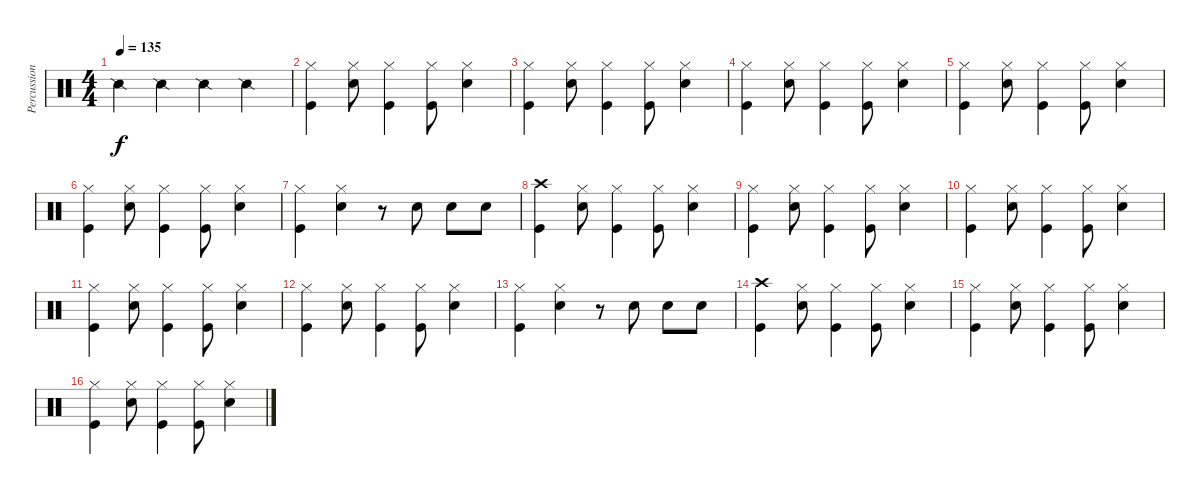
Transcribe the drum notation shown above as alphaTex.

\track ("Percussion" "Percussion") {instrument percussion}
\staff {score}
\articulation defaults
\ts (4 4)
\tempo 135
\clef neutral
\ks c "Snare (side stick) 2".4{dy f} "Snare (side stick) 2".4 "Snare (side stick) 2".4 "Snare (side stick) 2".4
|
("Hi-Hat (closed)" "Kick (hit)").4 ("Hi-Hat (closed)" "Electric Snare (hit)").8 ("Hi-Hat (closed)" "Kick (hit)").4 ("Hi-Hat (closed)" "Kick (hit)").8 ("Hi-Hat (closed)" "Electric Snare (hit)").4 |
("Hi-Hat (closed)" "Kick (hit)").4 ("Hi-Hat (closed)" "Electric Snare (hit)").8 ("Hi-Hat (closed)" "Kick (hit)").4 ("Hi-Hat (closed)" "Kick (hit)").8 ("Hi-Hat (closed)" "Electric Snare (hit)").4 |
("Hi-Hat (closed)" "Kick (hit)").4 ("Hi-Hat (closed)" "Electric Snare (hit)").8 ("Hi-Hat (closed)" "Kick (hit)").4 ("Hi-Hat (closed)" "Kick (hit)").8 ("Hi-Hat (closed)" "Electric Snare (hit)").4 |
("Hi-Hat (closed)" "Kick (hit)").4 ("Hi-Hat (closed)" "Electric Snare (hit)").8 ("Hi-Hat (closed)" "Kick (hit)").4 ("Hi-Hat (closed)" "Kick (hit)").8 ("Hi-Hat (closed)" "Electric Snare (hit)").4 |
("Hi-Hat (closed)" "Kick (hit)").4 ("Hi-Hat (closed)" "Electric Snare (hit)").8 ("Hi-Hat (closed)" "Kick (hit)").4 ("Hi-Hat (closed)" "Kick (hit)").8 ("Hi-Hat (closed)" "Electric Snare (hit)").4 |
("Hi-Hat (closed)" "Kick (hit)").4 ("Hi-Hat (closed)" "Electric Snare (hit)").4 r.8 "Electric Snare (hit)".8 "Electric Snare (hit)".8 "Electric Snare (hit)".8 |
("Crash high (hit)" "Kick (hit)").4 ("Hi-Hat (closed)" "Electric Snare (hit)").8 ("Hi-Hat (closed)" "Kick (hit)").4 ("Hi-Hat (closed)" "Kick (hit)").8 ("Hi-Hat (closed)" "Electric Snare (hit)").4 |
("Hi-Hat (closed)" "Kick (hit)").4 ("Hi-Hat (closed)" "Electric Snare (hit)").8 ("Hi-Hat (closed)" "Kick (hit)").4 ("Hi-Hat (closed)" "Kick (hit)").8 ("Hi-Hat (closed)" "Electric Snare (hit)").4 |
("Hi-Hat (closed)" "Kick (hit)").4 ("Hi-Hat (closed)" "Electric Snare (hit)").8 ("Hi-Hat (closed)" "Kick (hit)").4 ("Hi-Hat (closed)" "Kick (hit)").8 ("Hi-Hat (closed)" "Electric Snare (hit)").4 |
("Hi-Hat (closed)" "Kick (hit)").4 ("Hi-Hat (closed)" "Electric Snare (hit)").8 ("Hi-Hat (closed)" "Kick (hit)").4 ("Hi-Hat (closed)" "Kick (hit)").8 ("Hi-Hat (closed)" "Electric Snare (hit)").4 |
("Hi-Hat (closed)" "Kick (hit)").4 ("Hi-Hat (closed)" "Electric Snare (hit)").8 ("Hi-Hat (closed)" "Kick (hit)").4 ("Hi-Hat (closed)" "Kick (hit)").8 ("Hi-Hat (closed)" "Electric Snare (hit)").4 |
("Hi-Hat (closed)" "Kick (hit)").4 ("Hi-Hat (closed)" "Electric Snare (hit)").4 r.8 "Electric Snare (hit)".8 "Electric Snare (hit)".8 "Electric Snare (hit)".8 |
("Crash high (hit)" "Kick (hit)").4 ("Hi-Hat (closed)" "Electric Snare (hit)").8 ("Hi-Hat (closed)" "Kick (hit)").4 ("Hi-Hat (closed)" "Kick (hit)").8 ("Hi-Hat (closed)" "Electric Snare (hit)").4 |
("Hi-Hat (closed)" "Kick (hit)").4 ("Hi-Hat (closed)" "Electric Snare (hit)").8 ("Hi-Hat (closed)" "Kick (hit)").4 ("Hi-Hat (closed)" "Kick (hit)").8 ("Hi-Hat (closed)" "Electric Snare (hit)").4 |
("Hi-Hat (closed)" "Kick (hit)").4 ("Hi-Hat (closed)" "Electric Snare (hit)").8 ("Hi-Hat (closed)" "Kick (hit)").4 ("Hi-Hat (closed)" "Kick (hit)").8 ("Hi-Hat (closed)" "Electric Snare (hit)").4
